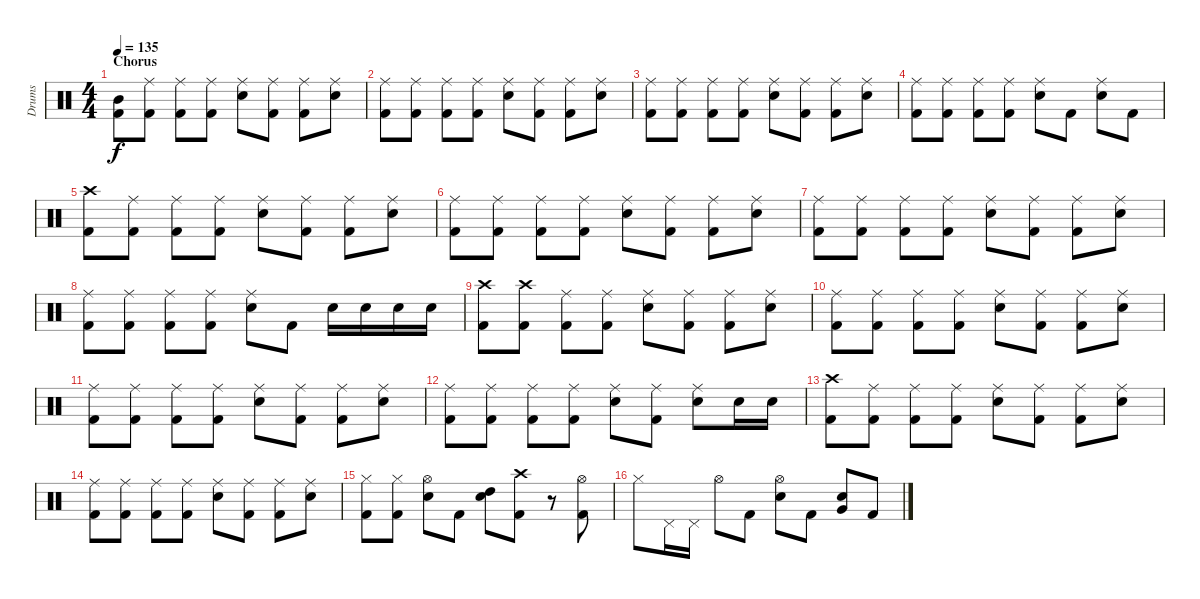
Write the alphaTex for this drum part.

\track ("Drums" "Drums") {instrument percussion}
\staff {score}
\articulation defaults
\ts (4 4)
\section ("" "Chorus")
\tempo 135
\clef neutral
\ks c
("Mid Tom (hit)" "Kick (hit) 2").8{dy f} ("Ride (middle)" "Kick (hit) 2").8 ("Ride (middle)" "Kick (hit) 2").8 ("Ride (middle)" "Kick (hit) 2").8 ("Ride (middle)" "Snare (hit) 2").8 ("Ride (middle)" "Kick (hit) 2").8 ("Ride (middle)" "Kick (hit) 2").8 ("Ride (middle)" "Snare (hit) 2").8 |
("Ride (middle)" "Kick (hit) 2").8 ("Ride (middle)" "Kick (hit) 2").8 ("Ride (middle)" "Kick (hit) 2").8 ("Ride (middle)" "Kick (hit) 2").8 ("Ride (middle)" "Snare (hit) 2").8 ("Ride (middle)" "Kick (hit) 2").8 ("Ride (middle)" "Kick (hit) 2").8 ("Ride (middle)" "Snare (hit) 2").8 |
("Ride (middle)" "Kick (hit) 2").8 ("Ride (middle)" "Kick (hit) 2").8 ("Ride (middle)" "Kick (hit) 2").8 ("Ride (middle)" "Kick (hit) 2").8 ("Ride (middle)" "Snare (hit) 2").8 ("Ride (middle)" "Kick (hit) 2").8 ("Ride (middle)" "Kick (hit) 2").8 ("Ride (middle)" "Snare (hit) 2").8 |
("Ride (middle)" "Kick (hit) 2").8 ("Ride (middle)" "Kick (hit) 2").8 ("Ride (middle)" "Kick (hit) 2").8 ("Ride (middle)" "Kick (hit) 2").8 ("Ride (middle)" "Snare (hit) 2").8 "Kick (hit) 2".8 ("Ride (middle)" "Snare (hit) 2").8 "Kick (hit) 2".8 |
("Crash high (hit)" "Kick (hit) 2").8 ("Ride (middle)" "Kick (hit) 2").8 ("Ride (middle)" "Kick (hit) 2").8 ("Ride (middle)" "Kick (hit) 2").8 ("Ride (middle)" "Snare (hit) 2").8 ("Ride (middle)" "Kick (hit) 2").8 ("Ride (middle)" "Kick (hit) 2").8 ("Ride (middle)" "Snare (hit) 2").8 |
("Ride (middle)" "Kick (hit) 2").8 ("Ride (middle)" "Kick (hit) 2").8 ("Ride (middle)" "Kick (hit) 2").8 ("Ride (middle)" "Kick (hit) 2").8 ("Ride (middle)" "Snare (hit) 2").8 ("Ride (middle)" "Kick (hit) 2").8 ("Ride (middle)" "Kick (hit) 2").8 ("Ride (middle)" "Snare (hit) 2").8 |
("Ride (middle)" "Kick (hit) 2").8 ("Ride (middle)" "Kick (hit) 2").8 ("Ride (middle)" "Kick (hit) 2").8 ("Ride (middle)" "Kick (hit) 2").8 ("Ride (middle)" "Snare (hit) 2").8 ("Ride (middle)" "Kick (hit) 2").8 ("Ride (middle)" "Kick (hit) 2").8 ("Ride (middle)" "Snare (hit) 2").8 |
("Ride (middle)" "Kick (hit) 2").8 ("Ride (middle)" "Kick (hit) 2").8 ("Ride (middle)" "Kick (hit) 2").8 ("Ride (middle)" "Kick (hit) 2").8 ("Ride (middle)" "Snare (hit) 2").8 "Kick (hit) 2".8 "Snare (hit) 2".16 "Snare (hit) 2".16 "Snare (hit) 2".16 "Snare (hit) 2".16 |
("Crash high (hit)" "Kick (hit) 2").8 ("Crash high (hit)" "Kick (hit) 2").8 ("Ride (middle)" "Kick (hit) 2").8 ("Ride (middle)" "Kick (hit) 2").8 ("Ride (middle)" "Snare (hit) 2").8 ("Ride (middle)" "Kick (hit) 2").8 ("Ride (middle)" "Kick (hit) 2").8 ("Ride (middle)" "Snare (hit) 2").8 |
("Ride (middle)" "Kick (hit) 2").8 ("Ride (middle)" "Kick (hit) 2").8 ("Ride (middle)" "Kick (hit) 2").8 ("Ride (middle)" "Kick (hit) 2").8 ("Ride (middle)" "Snare (hit) 2").8 ("Ride (middle)" "Kick (hit) 2").8 ("Ride (middle)" "Kick (hit) 2").8 ("Ride (middle)" "Snare (hit) 2").8 |
("Ride (middle)" "Kick (hit) 2").8 ("Ride (middle)" "Kick (hit) 2").8 ("Ride (middle)" "Kick (hit) 2").8 ("Ride (middle)" "Kick (hit) 2").8 ("Ride (middle)" "Snare (hit) 2").8 ("Ride (middle)" "Kick (hit) 2").8 ("Ride (middle)" "Kick (hit) 2").8 ("Ride (middle)" "Snare (hit) 2").8 |
("Ride (middle)" "Kick (hit) 2").8 ("Ride (middle)" "Kick (hit) 2").8 ("Ride (middle)" "Kick (hit) 2").8 ("Ride (middle)" "Kick (hit) 2").8 ("Ride (middle)" "Snare (hit) 2").8 ("Ride (middle)" "Kick (hit) 2").8 ("Ride (middle)" "Snare (hit) 2").8 "Snare (hit) 2".16 "Snare (hit) 2".16 |
("Crash high (hit)" "Kick (hit) 2").8 ("Ride (middle)" "Kick (hit) 2").8 ("Ride (middle)" "Kick (hit) 2").8 ("Ride (middle)" "Kick (hit) 2").8 ("Ride (middle)" "Snare (hit) 2").8 ("Ride (middle)" "Kick (hit) 2").8 ("Ride (middle)" "Kick (hit) 2").8 ("Ride (middle)" "Snare (hit) 2").8 |
("Ride (middle)" "Kick (hit) 2").8 ("Ride (middle)" "Kick (hit) 2").8 ("Ride (middle)" "Kick (hit) 2").8 ("Ride (middle)" "Kick (hit) 2").8 ("Ride (middle)" "Snare (hit) 2").8 ("Ride (middle)" "Kick (hit) 2").8 ("Ride (middle)" "Kick (hit) 2").8 ("Ride (middle)" "Snare (hit) 2").8 |
("Hi-Hat (closed)" "Kick (hit) 2").8 ("Hi-Hat (closed)" "Kick (hit) 2").8 ("Hi-Hat (open)" "Snare (hit) 2").8 "Kick (hit) 2".8 ("High Tom (hit)" "Snare (hit) 2").8 ("Crash high (hit)" "Kick (hit) 2").8 r.8 ("Hi-Hat (open)" "Kick (hit) 2").8 |
"Hi-Hat (closed)".8 "Pedal Hi-Hat (hit)".16 "Pedal Hi-Hat (hit)".16 "Hi-Hat (open)".8 "Kick (hit) 2".8 ("Hi-Hat (open)" "Snare (hit) 2").8 "Kick (hit) 2".8 ("Snare (hit) 2" "Very Low Tom (hit)").8 "Kick (hit) 2".8
